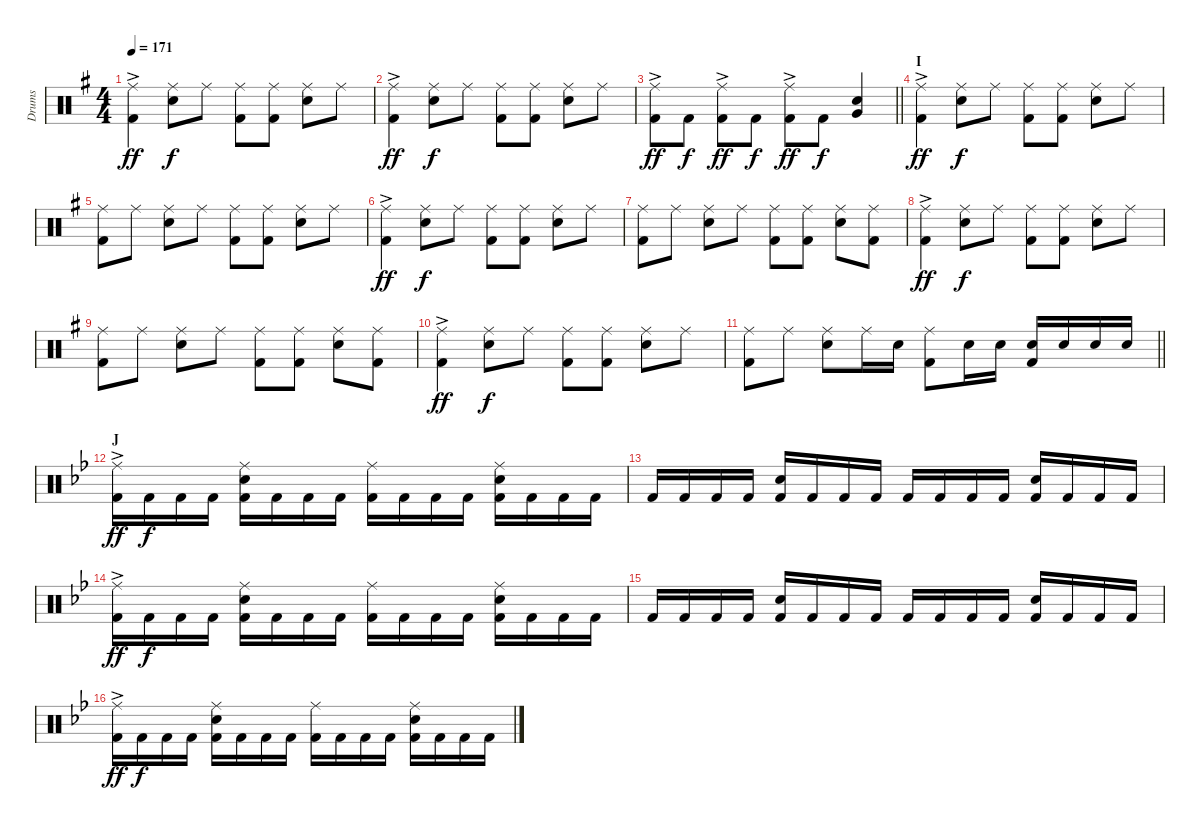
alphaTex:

\track ("Drums" "Drums") {instrument percussion}
\staff {score}
\articulation defaults
\ts (4 4)
\tempo 171
\clef neutral
\ks g
("Ride (middle)"{ac} "Kick (hit) 2").4{dy ff} ("Ride (middle)" "Snare (hit) 2").8{dy f} "Ride (middle)".8 ("Ride (middle)" "Kick (hit) 2").8 ("Ride (middle)" "Kick (hit) 2").8 ("Ride (middle)" "Snare (hit) 2").8 "Ride (middle)".8 |
("Ride (middle)"{ac} "Kick (hit) 2").4{dy ff} ("Ride (middle)" "Snare (hit) 2").8{dy f} "Ride (middle)".8 ("Ride (middle)" "Kick (hit) 2").8 ("Ride (middle)" "Kick (hit) 2").8 ("Ride (middle)" "Snare (hit) 2").8 "Ride (middle)".8 |
\barLineRight lightlight
("Ride (middle)"{ac} "Kick (hit) 2").8{dy ff} "Kick (hit) 2".8{dy f} ("Ride (middle)"{ac} "Kick (hit) 2").8{dy ff} "Kick (hit) 2".8{dy f} ("Ride (middle)"{ac} "Kick (hit) 2").8{dy ff} "Kick (hit) 2".8{dy f} ("Very Low Tom (hit)" "Snare (hit) 2").4 |
\section ("" "I")
("Ride (middle)"{ac} "Kick (hit) 2").4{dy ff} ("Ride (middle)" "Snare (hit) 2").8{dy f} "Ride (middle)".8 ("Ride (middle)" "Kick (hit) 2").8 ("Ride (middle)" "Kick (hit) 2").8 ("Ride (middle)" "Snare (hit) 2").8 "Ride (middle)".8 |
("Ride (middle)" "Kick (hit) 2").8 "Ride (middle)".8 ("Ride (middle)" "Snare (hit) 2").8 "Ride (middle)".8 ("Ride (middle)" "Kick (hit) 2").8 ("Ride (middle)" "Kick (hit) 2").8 ("Ride (middle)" "Snare (hit) 2").8 "Ride (middle)".8 |
("Ride (middle)"{ac} "Kick (hit) 2").4{dy ff} ("Ride (middle)" "Snare (hit) 2").8{dy f} "Ride (middle)".8 ("Ride (middle)" "Kick (hit) 2").8 ("Ride (middle)" "Kick (hit) 2").8 ("Ride (middle)" "Snare (hit) 2").8 "Ride (middle)".8 |
("Ride (middle)" "Kick (hit) 2").8 "Ride (middle)".8 ("Ride (middle)" "Snare (hit) 2").8 "Ride (middle)".8 ("Ride (middle)" "Kick (hit) 2").8 ("Ride (middle)" "Kick (hit) 2").8 ("Ride (middle)" "Snare (hit) 2").8 ("Ride (middle)" "Kick (hit) 2").8 |
("Ride (middle)"{ac} "Kick (hit) 2").4{dy ff} ("Ride (middle)" "Snare (hit) 2").8{dy f} "Ride (middle)".8 ("Ride (middle)" "Kick (hit) 2").8 ("Ride (middle)" "Kick (hit) 2").8 ("Ride (middle)" "Snare (hit) 2").8 "Ride (middle)".8 |
("Ride (middle)" "Kick (hit) 2").8 "Ride (middle)".8 ("Ride (middle)" "Snare (hit) 2").8 "Ride (middle)".8 ("Ride (middle)" "Kick (hit) 2").8 ("Ride (middle)" "Kick (hit) 2").8 ("Ride (middle)" "Snare (hit) 2").8 ("Ride (middle)" "Kick (hit) 2").8 |
("Ride (middle)"{ac} "Kick (hit) 2").4{dy ff} ("Ride (middle)" "Snare (hit) 2").8{dy f} "Ride (middle)".8 ("Ride (middle)" "Kick (hit) 2").8 ("Ride (middle)" "Kick (hit) 2").8 ("Ride (middle)" "Snare (hit) 2").8 "Ride (middle)".8 |
\barLineRight lightlight
("Ride (middle)" "Kick (hit) 2").8 "Ride (middle)".8 ("Ride (middle)" "Snare (hit) 2").8 "Ride (middle)".16 "Snare (hit) 2".16 ("Ride (middle)" "Kick (hit) 2").8 "Snare (hit) 2".16 "Snare (hit) 2".16 ("Snare (hit) 2" "Kick (hit) 2").16 "Snare (hit) 2".16 "Snare (hit) 2".16 "Snare (hit) 2".16 |
\section ("" "J")
\ks bb
("Ride (middle)"{ac} "Kick (hit) 2").16{dy ff} "Kick (hit) 2".16{dy f} "Kick (hit) 2".16 "Kick (hit) 2".16 ("Ride (middle)" "Snare (hit) 2" "Kick (hit) 2").16 "Kick (hit) 2".16 "Kick (hit) 2".16 "Kick (hit) 2".16 ("Ride (middle)" "Kick (hit) 2").16 "Kick (hit) 2".16 "Kick (hit) 2".16 "Kick (hit) 2".16 ("Ride (middle)" "Snare (hit) 2" "Kick (hit) 2").16 "Kick (hit) 2".16 "Kick (hit) 2".16 "Kick (hit) 2".16 |
"Kick (hit) 2".16 "Kick (hit) 2".16 "Kick (hit) 2".16 "Kick (hit) 2".16 ("Snare (hit) 2" "Kick (hit) 2").16 "Kick (hit) 2".16 "Kick (hit) 2".16 "Kick (hit) 2".16 "Kick (hit) 2".16 "Kick (hit) 2".16 "Kick (hit) 2".16 "Kick (hit) 2".16 ("Snare (hit) 2" "Kick (hit) 2").16 "Kick (hit) 2".16 "Kick (hit) 2".16 "Kick (hit) 2".16 |
("Ride (middle)"{ac} "Kick (hit) 2").16{dy ff} "Kick (hit) 2".16{dy f} "Kick (hit) 2".16 "Kick (hit) 2".16 ("Ride (middle)" "Snare (hit) 2" "Kick (hit) 2").16 "Kick (hit) 2".16 "Kick (hit) 2".16 "Kick (hit) 2".16 ("Ride (middle)" "Kick (hit) 2").16 "Kick (hit) 2".16 "Kick (hit) 2".16 "Kick (hit) 2".16 ("Ride (middle)" "Snare (hit) 2" "Kick (hit) 2").16 "Kick (hit) 2".16 "Kick (hit) 2".16 "Kick (hit) 2".16 |
"Kick (hit) 2".16 "Kick (hit) 2".16 "Kick (hit) 2".16 "Kick (hit) 2".16 ("Snare (hit) 2" "Kick (hit) 2").16 "Kick (hit) 2".16 "Kick (hit) 2".16 "Kick (hit) 2".16 "Kick (hit) 2".16 "Kick (hit) 2".16 "Kick (hit) 2".16 "Kick (hit) 2".16 ("Snare (hit) 2" "Kick (hit) 2").16 "Kick (hit) 2".16 "Kick (hit) 2".16 "Kick (hit) 2".16 |
("Ride (middle)"{ac} "Kick (hit) 2").16{dy ff} "Kick (hit) 2".16{dy f} "Kick (hit) 2".16 "Kick (hit) 2".16 ("Ride (middle)" "Snare (hit) 2" "Kick (hit) 2").16 "Kick (hit) 2".16 "Kick (hit) 2".16 "Kick (hit) 2".16 ("Ride (middle)" "Kick (hit) 2").16 "Kick (hit) 2".16 "Kick (hit) 2".16 "Kick (hit) 2".16 ("Ride (middle)" "Snare (hit) 2" "Kick (hit) 2").16 "Kick (hit) 2".16 "Kick (hit) 2".16 "Kick (hit) 2".16
